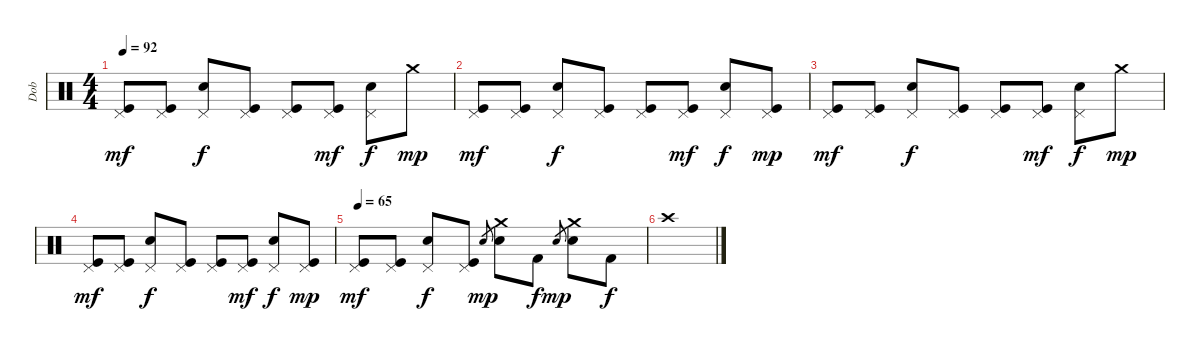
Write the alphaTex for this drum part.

\track ("Dob" "Dob") {instrument percussion}
\staff {score}
\articulation defaults
\ts (4 4)
\tempo 92
\clef neutral
\ks c
("Kick (hit)" "Pedal Hi-Hat (hit)").8{dy mf} ("Kick (hit)" "Pedal Hi-Hat (hit)").8 ("Electric Snare (hit)" "Pedal Hi-Hat (hit)").8{dy f} ("Kick (hit)" "Pedal Hi-Hat (hit)").8 ("Kick (hit)" "Pedal Hi-Hat (hit)").8 ("Kick (hit)" "Pedal Hi-Hat (hit)").8{dy mf} ("Electric Snare (hit)" "Pedal Hi-Hat (hit)").8{dy f} "Crash medium (hit)".8{dy mp} |
("Kick (hit)" "Pedal Hi-Hat (hit)").8{dy mf} ("Kick (hit)" "Pedal Hi-Hat (hit)").8 ("Electric Snare (hit)" "Pedal Hi-Hat (hit)").8{dy f} ("Kick (hit)" "Pedal Hi-Hat (hit)").8 ("Kick (hit)" "Pedal Hi-Hat (hit)").8 ("Kick (hit)" "Pedal Hi-Hat (hit)").8{dy mf} ("Electric Snare (hit)" "Pedal Hi-Hat (hit)").8{dy f} ("Kick (hit)" "Pedal Hi-Hat (hit)").8{dy mp} |
("Kick (hit)" "Pedal Hi-Hat (hit)").8{dy mf} ("Kick (hit)" "Pedal Hi-Hat (hit)").8 ("Electric Snare (hit)" "Pedal Hi-Hat (hit)").8{dy f} ("Kick (hit)" "Pedal Hi-Hat (hit)").8 ("Kick (hit)" "Pedal Hi-Hat (hit)").8 ("Kick (hit)" "Pedal Hi-Hat (hit)").8{dy mf} ("Electric Snare (hit)" "Pedal Hi-Hat (hit)").8{dy f} "Crash medium (hit)".8{dy mp} |
("Kick (hit)" "Pedal Hi-Hat (hit)").8{dy mf} ("Kick (hit)" "Pedal Hi-Hat (hit)").8 ("Electric Snare (hit)" "Pedal Hi-Hat (hit)").8{dy f} ("Kick (hit)" "Pedal Hi-Hat (hit)").8 ("Kick (hit)" "Pedal Hi-Hat (hit)").8 ("Kick (hit)" "Pedal Hi-Hat (hit)").8{dy mf} ("Electric Snare (hit)" "Pedal Hi-Hat (hit)").8{dy f} ("Kick (hit)" "Pedal Hi-Hat (hit)").8{dy mp} |
\tempo 65
("Kick (hit)" "Pedal Hi-Hat (hit)").8{dy mf} ("Kick (hit)" "Pedal Hi-Hat (hit)").8 ("Electric Snare (hit)" "Pedal Hi-Hat (hit)").8{dy f} ("Kick (hit)" "Pedal Hi-Hat (hit)").8 "Electric Snare (hit)".8{gr dy mp} ("Electric Snare (hit)" "Crash medium (hit)").8 "Kick (hit) 2".8{dy f} "Electric Snare (hit)".8{gr dy mp} ("Electric Snare (hit)" "Crash medium (hit)").8 "Kick (hit) 2".8{dy f} |
"Crash high (hit)".1
